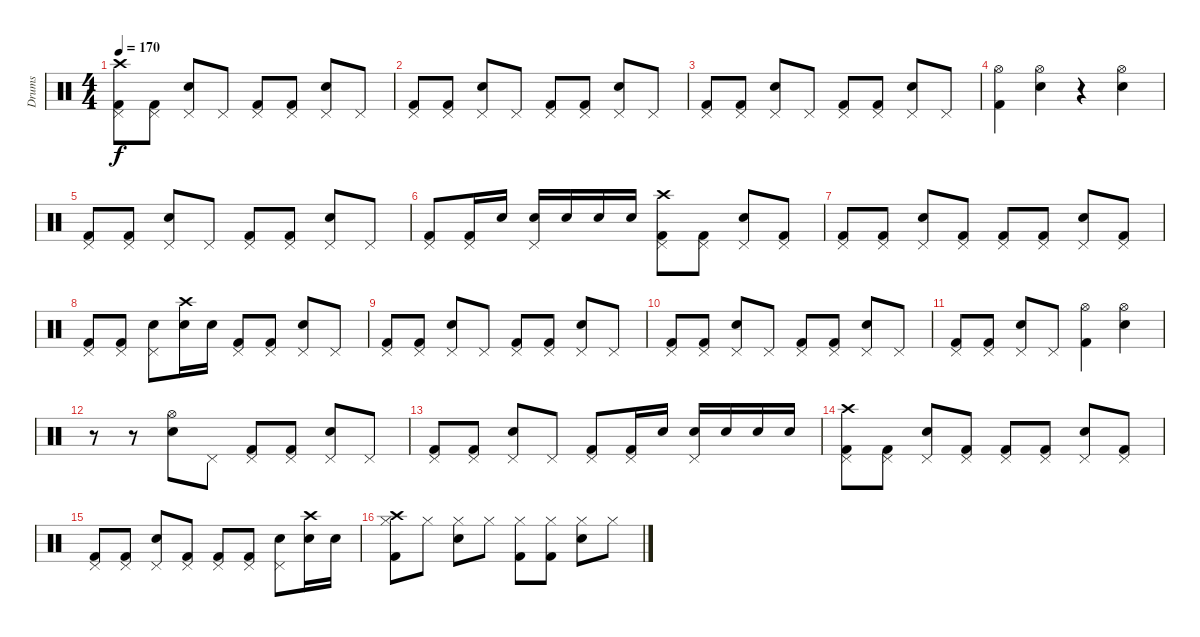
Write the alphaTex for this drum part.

\track ("Drums" "Drums") {instrument percussion}
\staff {score}
\articulation defaults
\ts (4 4)
\tempo 170
\clef neutral
\ks c
("Crash high (hit)" "Pedal Hi-Hat (hit)" "Kick (hit) 2").8{dy f} ("Pedal Hi-Hat (hit)" "Kick (hit) 2").8 ("Pedal Hi-Hat (hit)" "Electric Snare (hit)").8 "Pedal Hi-Hat (hit)".8 ("Pedal Hi-Hat (hit)" "Kick (hit) 2").8 ("Pedal Hi-Hat (hit)" "Kick (hit) 2").8 ("Pedal Hi-Hat (hit)" "Electric Snare (hit)").8 "Pedal Hi-Hat (hit)".8 |
("Pedal Hi-Hat (hit)" "Kick (hit) 2").8 ("Pedal Hi-Hat (hit)" "Kick (hit) 2").8 ("Pedal Hi-Hat (hit)" "Electric Snare (hit)").8 "Pedal Hi-Hat (hit)".8 ("Pedal Hi-Hat (hit)" "Kick (hit) 2").8 ("Pedal Hi-Hat (hit)" "Kick (hit) 2").8 ("Pedal Hi-Hat (hit)" "Electric Snare (hit)").8 "Pedal Hi-Hat (hit)".8 |
("Pedal Hi-Hat (hit)" "Kick (hit) 2").8 ("Pedal Hi-Hat (hit)" "Kick (hit) 2").8 ("Pedal Hi-Hat (hit)" "Electric Snare (hit)").8 "Pedal Hi-Hat (hit)".8 ("Pedal Hi-Hat (hit)" "Kick (hit) 2").8 ("Pedal Hi-Hat (hit)" "Kick (hit) 2").8 ("Pedal Hi-Hat (hit)" "Electric Snare (hit)").8 "Pedal Hi-Hat (hit)".8 |
("Hi-Hat (open)" "Kick (hit) 2").4 ("Hi-Hat (open)" "Electric Snare (hit)").4 r.4 ("Hi-Hat (open)" "Electric Snare (hit)").4 |
("Pedal Hi-Hat (hit)" "Kick (hit) 2").8 ("Pedal Hi-Hat (hit)" "Kick (hit) 2").8 ("Pedal Hi-Hat (hit)" "Electric Snare (hit)").8 "Pedal Hi-Hat (hit)".8 ("Pedal Hi-Hat (hit)" "Kick (hit) 2").8 ("Pedal Hi-Hat (hit)" "Kick (hit) 2").8 ("Pedal Hi-Hat (hit)" "Electric Snare (hit)").8 "Pedal Hi-Hat (hit)".8 |
("Pedal Hi-Hat (hit)" "Kick (hit) 2").8 ("Pedal Hi-Hat (hit)" "Kick (hit) 2").16 "Electric Snare (hit)".16 ("Pedal Hi-Hat (hit)" "Electric Snare (hit)").16 "Electric Snare (hit)".16 "Electric Snare (hit)".16 "Electric Snare (hit)".16 ("Crash high (hit)" "Pedal Hi-Hat (hit)" "Kick (hit) 2").8 ("Pedal Hi-Hat (hit)" "Kick (hit) 2").8 ("Pedal Hi-Hat (hit)" "Electric Snare (hit)").8 ("Pedal Hi-Hat (hit)" "Kick (hit) 2").8 |
("Pedal Hi-Hat (hit)" "Kick (hit) 2").8 ("Pedal Hi-Hat (hit)" "Kick (hit) 2").8 ("Pedal Hi-Hat (hit)" "Electric Snare (hit)").8 ("Pedal Hi-Hat (hit)" "Kick (hit) 2").8 ("Pedal Hi-Hat (hit)" "Kick (hit) 2").8 ("Pedal Hi-Hat (hit)" "Kick (hit) 2").8 ("Pedal Hi-Hat (hit)" "Electric Snare (hit)").8 ("Pedal Hi-Hat (hit)" "Kick (hit) 2").8 |
("Pedal Hi-Hat (hit)" "Kick (hit) 2").8 ("Pedal Hi-Hat (hit)" "Kick (hit) 2").8 ("Pedal Hi-Hat (hit)" "Electric Snare (hit)").8 ("Crash high (hit)" "Electric Snare (hit)").16 "Electric Snare (hit)".16 ("Pedal Hi-Hat (hit)" "Kick (hit) 2").8 ("Pedal Hi-Hat (hit)" "Kick (hit) 2").8 ("Pedal Hi-Hat (hit)" "Electric Snare (hit)").8 "Pedal Hi-Hat (hit)".8 |
("Pedal Hi-Hat (hit)" "Kick (hit) 2").8 ("Pedal Hi-Hat (hit)" "Kick (hit) 2").8 ("Pedal Hi-Hat (hit)" "Electric Snare (hit)").8 "Pedal Hi-Hat (hit)".8 ("Pedal Hi-Hat (hit)" "Kick (hit) 2").8 ("Pedal Hi-Hat (hit)" "Kick (hit) 2").8 ("Pedal Hi-Hat (hit)" "Electric Snare (hit)").8 "Pedal Hi-Hat (hit)".8 |
("Pedal Hi-Hat (hit)" "Kick (hit) 2").8 ("Pedal Hi-Hat (hit)" "Kick (hit) 2").8 ("Pedal Hi-Hat (hit)" "Electric Snare (hit)").8 "Pedal Hi-Hat (hit)".8 ("Pedal Hi-Hat (hit)" "Kick (hit) 2").8 ("Pedal Hi-Hat (hit)" "Kick (hit) 2").8 ("Pedal Hi-Hat (hit)" "Electric Snare (hit)").8 "Pedal Hi-Hat (hit)".8 |
("Pedal Hi-Hat (hit)" "Kick (hit) 2").8 ("Pedal Hi-Hat (hit)" "Kick (hit) 2").8 ("Pedal Hi-Hat (hit)" "Electric Snare (hit)").8 "Pedal Hi-Hat (hit)".8 ("Hi-Hat (open)" "Kick (hit) 2").4 ("Hi-Hat (open)" "Electric Snare (hit)").4 |
r.8 r.8 ("Hi-Hat (open)" "Electric Snare (hit)").8 "Pedal Hi-Hat (hit)".8 ("Pedal Hi-Hat (hit)" "Kick (hit) 2").8 ("Pedal Hi-Hat (hit)" "Kick (hit) 2").8 ("Pedal Hi-Hat (hit)" "Electric Snare (hit)").8 "Pedal Hi-Hat (hit)".8 |
("Pedal Hi-Hat (hit)" "Kick (hit) 2").8 ("Pedal Hi-Hat (hit)" "Kick (hit) 2").8 ("Pedal Hi-Hat (hit)" "Electric Snare (hit)").8 "Pedal Hi-Hat (hit)".8 ("Pedal Hi-Hat (hit)" "Kick (hit) 2").8 ("Pedal Hi-Hat (hit)" "Kick (hit) 2").16 "Electric Snare (hit)".16 ("Pedal Hi-Hat (hit)" "Electric Snare (hit)").16 "Electric Snare (hit)".16 "Electric Snare (hit)".16 "Electric Snare (hit)".16 |
("Crash high (hit)" "Pedal Hi-Hat (hit)" "Kick (hit) 2").8 ("Pedal Hi-Hat (hit)" "Kick (hit) 2").8 ("Pedal Hi-Hat (hit)" "Electric Snare (hit)").8 ("Pedal Hi-Hat (hit)" "Kick (hit) 2").8 ("Pedal Hi-Hat (hit)" "Kick (hit) 2").8 ("Pedal Hi-Hat (hit)" "Kick (hit) 2").8 ("Pedal Hi-Hat (hit)" "Electric Snare (hit)").8 ("Pedal Hi-Hat (hit)" "Kick (hit) 2").8 |
("Pedal Hi-Hat (hit)" "Kick (hit) 2").8 ("Pedal Hi-Hat (hit)" "Kick (hit) 2").8 ("Pedal Hi-Hat (hit)" "Electric Snare (hit)").8 ("Pedal Hi-Hat (hit)" "Kick (hit) 2").8 ("Pedal Hi-Hat (hit)" "Kick (hit) 2").8 ("Pedal Hi-Hat (hit)" "Kick (hit) 2").8 ("Pedal Hi-Hat (hit)" "Electric Snare (hit)").8 ("Crash high (hit)" "Electric Snare (hit)").16 "Electric Snare (hit)".16 |
("Crash high (hit)" "Hi-Hat (closed)" "Kick (hit) 2").8 "Hi-Hat (closed)".8 ("Hi-Hat (closed)" "Electric Snare (hit)").8 "Hi-Hat (closed)".8 ("Hi-Hat (closed)" "Kick (hit) 2").8 ("Hi-Hat (closed)" "Kick (hit) 2").8 ("Hi-Hat (closed)" "Electric Snare (hit)").8 "Hi-Hat (closed)".8
